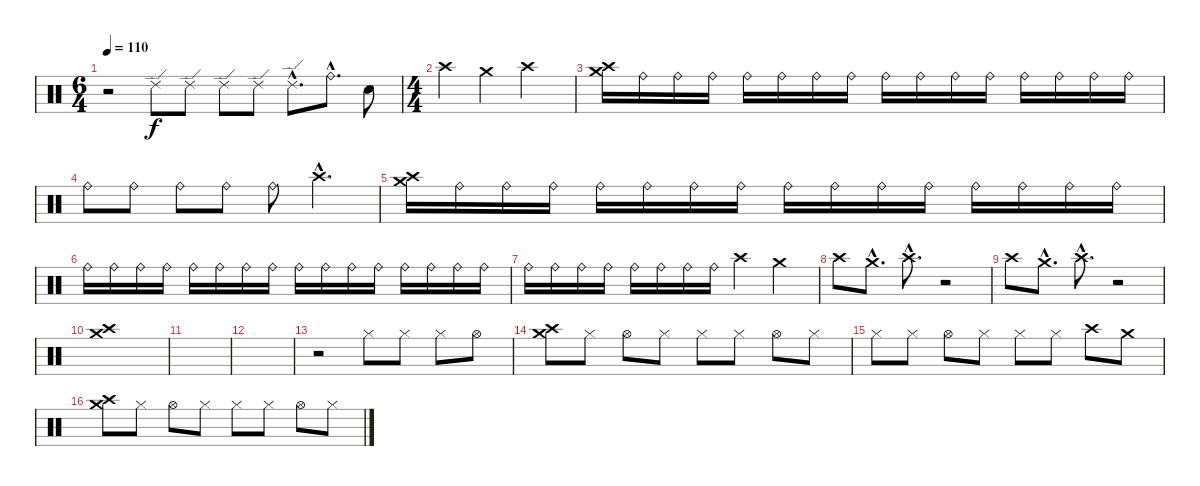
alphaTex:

\track "" {instrument percussion}
\staff {score}
\articulation defaults
\ts (6 4)
\tempo 110
\clef neutral
\ks c
r.2{dy f} "Ride (edge) 2".8 "Ride (edge) 2".8 "Ride (edge) 2".8 "Ride (edge) 2".8 "Ride (edge) 2"{hac}.8{d} "Ride (bell)"{hac}.8{d} "Metronome (bell)".8 |
\ts (4 4)
"Crash high (hit)".4 "Crash medium (hit)".4 "Crash high (hit)".2 |
("Crash medium (hit)" "Crash high (hit)").16 "Ride (bell)".16 "Ride (bell)".16 "Ride (bell)".16 "Ride (bell)".16 "Ride (bell)".16 "Ride (bell)".16 "Ride (bell)".16 "Ride (bell)".16 "Ride (bell)".16 "Ride (bell)".16 "Ride (bell)".16 "Ride (bell)".16 "Ride (bell)".16 "Ride (bell)".16 "Ride (bell)".16 |
"Ride (bell)".8 "Ride (bell)".8 "Ride (bell)".8 "Ride (bell)".8 "Ride (bell)".8 "Crash high (hit)"{hac}.4{d} |
("Crash medium (hit)" "Crash high (hit)").16 "Ride (bell)".16 "Ride (bell)".16 "Ride (bell)".16 "Ride (bell)".16 "Ride (bell)".16 "Ride (bell)".16 "Ride (bell)".16 "Ride (bell)".16 "Ride (bell)".16 "Ride (bell)".16 "Ride (bell)".16 "Ride (bell)".16 "Ride (bell)".16 "Ride (bell)".16 "Ride (bell)".16 |
"Ride (bell)".16 "Ride (bell)".16 "Ride (bell)".16 "Ride (bell)".16 "Ride (bell)".16 "Ride (bell)".16 "Ride (bell)".16 "Ride (bell)".16 "Ride (bell)".16 "Ride (bell)".16 "Ride (bell)".16 "Ride (bell)".16 "Ride (bell)".16 "Ride (bell)".16 "Ride (bell)".16 "Ride (bell)".16 |
"Ride (bell)".16 "Ride (bell)".16 "Ride (bell)".16 "Ride (bell)".16 "Ride (bell)".16 "Ride (bell)".16 "Ride (bell)".16 "Ride (bell)".16 "Crash high (hit)".4 "Crash medium (hit)".4 |
"Crash high (hit)".8 "Crash medium (hit)"{hac}.8{d} "Crash high (hit)"{hac}.8{d} r.2 |
"Crash high (hit)".8 "Crash medium (hit)"{hac}.8{d} "Crash high (hit)"{hac}.8{d} r.2 |
("Crash medium (hit)" "Crash high (hit)").1 |
|
|
r.2 "Hi-Hat (closed)".8 "Hi-Hat (closed)".8 "Hi-Hat (closed)".8 "Hi-Hat (open)".8 |
("Crash medium (hit)" "Crash high (hit)").8 "Hi-Hat (closed)".8 "Hi-Hat (open)".8 "Hi-Hat (closed)".8 "Hi-Hat (closed)".8 "Hi-Hat (closed)".8 "Hi-Hat (open)".8 "Hi-Hat (closed)".8 |
"Hi-Hat (closed)".8 "Hi-Hat (closed)".8 "Hi-Hat (open)".8 "Hi-Hat (closed)".8 "Hi-Hat (closed)".8 "Hi-Hat (closed)".8 "Crash high (hit)".8 "Crash medium (hit)".8 |
("Crash medium (hit)" "Crash high (hit)").8 "Hi-Hat (closed)".8 "Hi-Hat (open)".8 "Hi-Hat (closed)".8 "Hi-Hat (closed)".8 "Hi-Hat (closed)".8 "Hi-Hat (open)".8 "Hi-Hat (closed)".8
